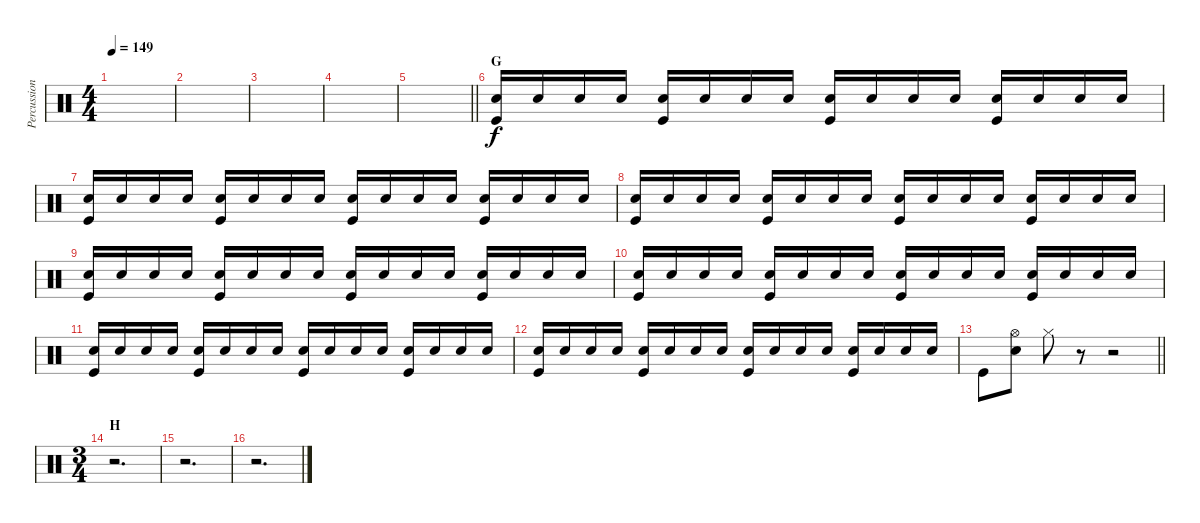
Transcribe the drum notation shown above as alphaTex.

\track ("Percussions" "Percussion") {instrument percussion}
\staff {score}
\articulation defaults
\ts (4 4)
\tempo 149
\clef neutral
\ks c
|
|
|
|
\barLineRight lightlight
|
\section ("" "G")
("Electric Snare (hit)" "Kick (hit)").16 "Electric Snare (hit)".16 "Electric Snare (hit)".16 "Electric Snare (hit)".16 ("Electric Snare (hit)" "Kick (hit)").16 "Electric Snare (hit)".16 "Electric Snare (hit)".16 "Electric Snare (hit)".16 ("Electric Snare (hit)" "Kick (hit)").16 "Electric Snare (hit)".16 "Electric Snare (hit)".16 "Electric Snare (hit)".16 ("Electric Snare (hit)" "Kick (hit)").16 "Electric Snare (hit)".16 "Electric Snare (hit)".16 "Electric Snare (hit)".16 |
("Electric Snare (hit)" "Kick (hit)").16 "Electric Snare (hit)".16 "Electric Snare (hit)".16 "Electric Snare (hit)".16 ("Electric Snare (hit)" "Kick (hit)").16 "Electric Snare (hit)".16 "Electric Snare (hit)".16 "Electric Snare (hit)".16 ("Electric Snare (hit)" "Kick (hit)").16 "Electric Snare (hit)".16 "Electric Snare (hit)".16 "Electric Snare (hit)".16 ("Electric Snare (hit)" "Kick (hit)").16 "Electric Snare (hit)".16 "Electric Snare (hit)".16 "Electric Snare (hit)".16 |
("Electric Snare (hit)" "Kick (hit)").16 "Electric Snare (hit)".16 "Electric Snare (hit)".16 "Electric Snare (hit)".16 ("Electric Snare (hit)" "Kick (hit)").16 "Electric Snare (hit)".16 "Electric Snare (hit)".16 "Electric Snare (hit)".16 ("Electric Snare (hit)" "Kick (hit)").16 "Electric Snare (hit)".16 "Electric Snare (hit)".16 "Electric Snare (hit)".16 ("Electric Snare (hit)" "Kick (hit)").16 "Electric Snare (hit)".16 "Electric Snare (hit)".16 "Electric Snare (hit)".16 |
("Electric Snare (hit)" "Kick (hit)").16 "Electric Snare (hit)".16 "Electric Snare (hit)".16 "Electric Snare (hit)".16 ("Electric Snare (hit)" "Kick (hit)").16 "Electric Snare (hit)".16 "Electric Snare (hit)".16 "Electric Snare (hit)".16 ("Electric Snare (hit)" "Kick (hit)").16 "Electric Snare (hit)".16 "Electric Snare (hit)".16 "Electric Snare (hit)".16 ("Electric Snare (hit)" "Kick (hit)").16 "Electric Snare (hit)".16 "Electric Snare (hit)".16 "Electric Snare (hit)".16 |
("Electric Snare (hit)" "Kick (hit)").16 "Electric Snare (hit)".16 "Electric Snare (hit)".16 "Electric Snare (hit)".16 ("Electric Snare (hit)" "Kick (hit)").16 "Electric Snare (hit)".16 "Electric Snare (hit)".16 "Electric Snare (hit)".16 ("Electric Snare (hit)" "Kick (hit)").16 "Electric Snare (hit)".16 "Electric Snare (hit)".16 "Electric Snare (hit)".16 ("Electric Snare (hit)" "Kick (hit)").16 "Electric Snare (hit)".16 "Electric Snare (hit)".16 "Electric Snare (hit)".16 |
("Electric Snare (hit)" "Kick (hit)").16 "Electric Snare (hit)".16 "Electric Snare (hit)".16 "Electric Snare (hit)".16 ("Electric Snare (hit)" "Kick (hit)").16 "Electric Snare (hit)".16 "Electric Snare (hit)".16 "Electric Snare (hit)".16 ("Electric Snare (hit)" "Kick (hit)").16 "Electric Snare (hit)".16 "Electric Snare (hit)".16 "Electric Snare (hit)".16 ("Electric Snare (hit)" "Kick (hit)").16 "Electric Snare (hit)".16 "Electric Snare (hit)".16 "Electric Snare (hit)".16 |
("Electric Snare (hit)" "Kick (hit)").16 "Electric Snare (hit)".16 "Electric Snare (hit)".16 "Electric Snare (hit)".16 ("Electric Snare (hit)" "Kick (hit)").16 "Electric Snare (hit)".16 "Electric Snare (hit)".16 "Electric Snare (hit)".16 ("Electric Snare (hit)" "Kick (hit)").16 "Electric Snare (hit)".16 "Electric Snare (hit)".16 "Electric Snare (hit)".16 ("Electric Snare (hit)" "Kick (hit)").16 "Electric Snare (hit)".16 "Electric Snare (hit)".16 "Electric Snare (hit)".16 |
\barLineRight lightlight "Kick (hit)".8
("Hi-Hat (open)" "Electric Snare (hit)").8 "Hi-Hat (closed)".8 r.8 r.2 |
\ts (3 4)
\section ("" "H")
r.2{d} |
r.2{d} |
r.2{d}
